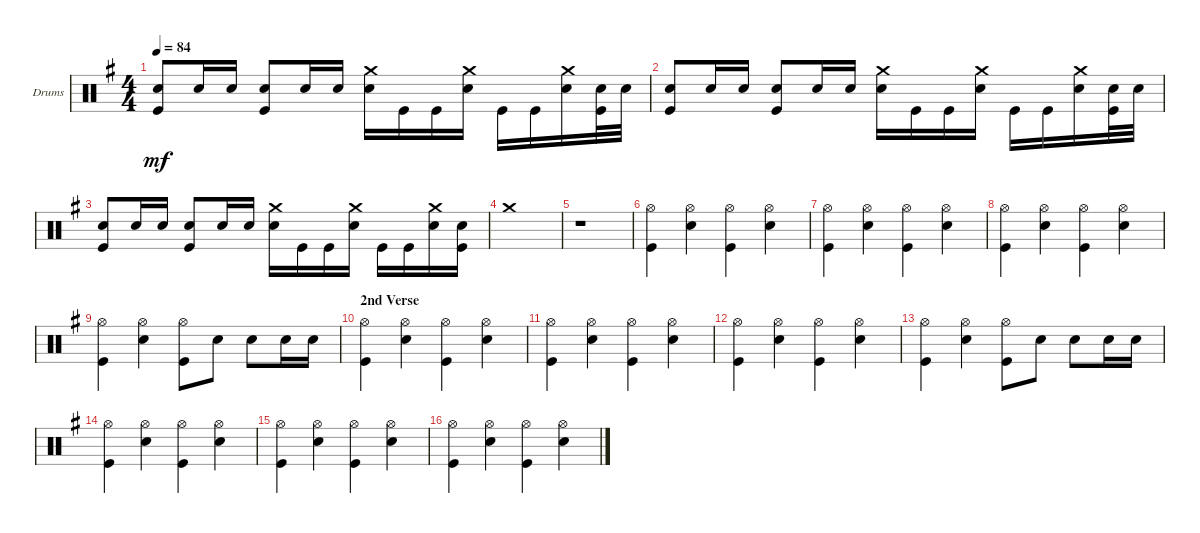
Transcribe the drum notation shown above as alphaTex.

\bracketExtendMode groupsimilarinstruments
\firstSystemTrackNameOrientation horizontal
\otherSystemsTrackNameOrientation horizontal
\track ("Drumkit" "Drums") {instrument percussion}
\staff {score}
\articulation defaults
\ts (4 4)
\tempo 84
\clef neutral
\scale
1.04288
\ks g
("Snare (hit) 2" "Kick (hit)").8{dy mf} "Snare (hit) 2".16 "Snare (hit) 2".16 ("Snare (hit) 2" "Kick (hit)").8 "Snare (hit) 2".16 "Snare (hit) 2".16 ("Crash medium (hit)" "Snare (hit) 2").16 "Kick (hit)".16 "Kick (hit)".16 ("Crash medium (hit)" "Snare (hit) 2").16 "Kick (hit)".16 "Kick (hit)".16 ("Crash medium (hit)" "Snare (hit) 2").16 ("Snare (hit) 2" "Kick (hit)").32 "Snare (hit) 2".32 |
\scale
0.957125 ("Snare (hit) 2" "Kick (hit)").8 "Snare (hit) 2".16 "Snare (hit) 2".16 ("Snare (hit) 2" "Kick (hit)").8 "Snare (hit) 2".16 "Snare (hit) 2".16 ("Crash medium (hit)" "Snare (hit) 2").16 "Kick (hit)".16 "Kick (hit)".16 ("Crash medium (hit)" "Snare (hit) 2").16 "Kick (hit)".16 "Kick (hit)".16 ("Crash medium (hit)" "Snare (hit) 2").16 ("Snare (hit) 2" "Kick (hit)").32 "Snare (hit) 2".32 |
\scale
1.04288 ("Snare (hit) 2" "Kick (hit)").8 "Snare (hit) 2".16 "Snare (hit) 2".16 ("Snare (hit) 2" "Kick (hit)").8 "Snare (hit) 2".16 "Snare (hit) 2".16 ("Crash medium (hit)" "Snare (hit) 2").16 "Kick (hit)".16 "Kick (hit)".16 ("Crash medium (hit)" "Snare (hit) 2").16 "Kick (hit)".16 "Kick (hit)".16 ("Crash medium (hit)" "Snare (hit) 2").16 ("Snare (hit) 2" "Kick (hit)").16 |
\scale
0.957125 "Crash medium (hit)".1 |
\scale
1.04288 r.1 |
\scale
0.957125 ("Hi-Hat (open)" "Kick (hit)").4 ("Hi-Hat (open)" "Snare (hit) 2").4 ("Hi-Hat (open)" "Kick (hit)").4 ("Hi-Hat (open)" "Snare (hit) 2").4 |
\scale
1.04288 ("Hi-Hat (open)" "Kick (hit)").4 ("Hi-Hat (open)" "Snare (hit) 2").4 ("Hi-Hat (open)" "Kick (hit)").4 ("Hi-Hat (open)" "Snare (hit) 2").4 |
\scale
0.957125 ("Hi-Hat (open)" "Kick (hit)").4 ("Hi-Hat (open)" "Snare (hit) 2").4 ("Hi-Hat (open)" "Kick (hit)").4 ("Hi-Hat (open)" "Snare (hit) 2").4 |
\scale
1.04288 ("Hi-Hat (open)" "Kick (hit)").4 ("Hi-Hat (open)" "Snare (hit) 2").4 ("Hi-Hat (open)" "Kick (hit)").8 "Snare (hit) 2".8 "Snare (hit) 2".8 "Snare (hit) 2".16 "Snare (hit) 2".16 |
\section ("" "2nd Verse")
\scale
0.957125 ("Hi-Hat (open)" "Kick (hit)").4 ("Hi-Hat (open)" "Snare (hit) 2").4 ("Hi-Hat (open)" "Kick (hit)").4 ("Hi-Hat (open)" "Snare (hit) 2").4 |
\scale
1.04288 ("Hi-Hat (open)" "Kick (hit)").4 ("Hi-Hat (open)" "Snare (hit) 2").4 ("Hi-Hat (open)" "Kick (hit)").4 ("Hi-Hat (open)" "Snare (hit) 2").4 |
\scale
0.957125 ("Hi-Hat (open)" "Kick (hit)").4 ("Hi-Hat (open)" "Snare (hit) 2").4 ("Hi-Hat (open)" "Kick (hit)").4 ("Hi-Hat (open)" "Snare (hit) 2").4 |
\scale
1.04288 ("Hi-Hat (open)" "Kick (hit)").4 ("Hi-Hat (open)" "Snare (hit) 2").4 ("Hi-Hat (open)" "Kick (hit)").8 "Snare (hit) 2".8 "Snare (hit) 2".8 "Snare (hit) 2".16 "Snare (hit) 2".16 |
\scale
0.957125 ("Hi-Hat (open)" "Kick (hit)").4 ("Hi-Hat (open)" "Snare (hit) 2").4 ("Hi-Hat (open)" "Kick (hit)").4 ("Hi-Hat (open)" "Snare (hit) 2").4 |
\scale
1.04288 ("Hi-Hat (open)" "Kick (hit)").4 ("Hi-Hat (open)" "Snare (hit) 2").4 ("Hi-Hat (open)" "Kick (hit)").4 ("Hi-Hat (open)" "Snare (hit) 2").4 |
\scale
0.957125 ("Hi-Hat (open)" "Kick (hit)").4 ("Hi-Hat (open)" "Snare (hit) 2").4 ("Hi-Hat (open)" "Kick (hit)").4 ("Hi-Hat (open)" "Snare (hit) 2").4
